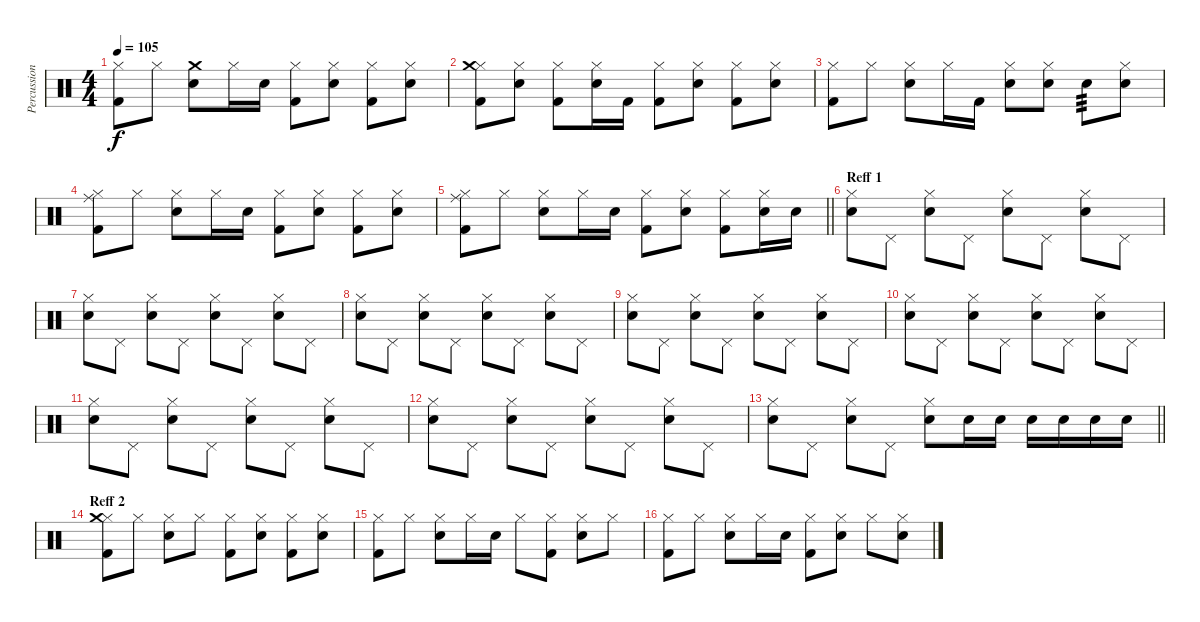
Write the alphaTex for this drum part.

\track ("Percussion" "Percussion") {instrument percussion}
\staff {score}
\articulation defaults
\ts (4 4)
\tempo 105
\clef neutral
\ks c
("Hi-Hat (closed)" "Kick (hit) 2").8{dy f} "Hi-Hat (closed)".8 ("Electric Snare (hit)" "Crash medium (hit)").8 "Hi-Hat (closed)".16 "Electric Snare (hit)".16 ("Hi-Hat (closed)" "Kick (hit) 2").8 ("Hi-Hat (closed)" "Electric Snare (hit)").8 ("Hi-Hat (closed)" "Kick (hit) 2").8 ("Hi-Hat (closed)" "Electric Snare (hit)").8 |
("Hi-Hat (closed)" "Crash medium (hit)" "Kick (hit) 2").8 ("Hi-Hat (closed)" "Electric Snare (hit)").8 ("Hi-Hat (closed)" "Kick (hit) 2").8 ("Electric Snare (hit)" "Hi-Hat (closed)").16 "Kick (hit) 2".16 ("Hi-Hat (closed)" "Kick (hit) 2").8 ("Hi-Hat (closed)" "Electric Snare (hit)").8 ("Hi-Hat (closed)" "Kick (hit) 2").8 ("Hi-Hat (closed)" "Electric Snare (hit)").8 |
("Hi-Hat (closed)" "Kick (hit) 2").8 "Hi-Hat (closed)".8 ("Hi-Hat (closed)" "Electric Snare (hit)").8 "Hi-Hat (closed)".16 "Kick (hit) 2".16 ("Hi-Hat (closed)" "Electric Snare (hit)").8 ("Hi-Hat (closed)" "Electric Snare (hit)").8 "Electric Snare (hit)".8{tp 3} ("Hi-Hat (closed)" "Electric Snare (hit)").8 |
("Hi-Hat (closed)" "Ride (middle)" "Kick (hit) 2").8 "Hi-Hat (closed)".8 ("Hi-Hat (closed)" "Electric Snare (hit)").8 "Hi-Hat (closed)".16 "Electric Snare (hit)".16 ("Hi-Hat (closed)" "Kick (hit) 2").8 ("Hi-Hat (closed)" "Electric Snare (hit)").8 ("Hi-Hat (closed)" "Kick (hit) 2").8 ("Hi-Hat (closed)" "Electric Snare (hit)").8 |
\barLineRight lightlight
("Hi-Hat (closed)" "Ride (middle)" "Kick (hit) 2").8 "Hi-Hat (closed)".8 ("Hi-Hat (closed)" "Electric Snare (hit)").8 "Hi-Hat (closed)".16 "Electric Snare (hit)".16 ("Hi-Hat (closed)" "Kick (hit) 2").8 ("Hi-Hat (closed)" "Electric Snare (hit)").8 ("Hi-Hat (closed)" "Kick (hit) 2").8 ("Hi-Hat (closed)" "Electric Snare (hit)").16 "Electric Snare (hit)".16 |
\section ("" "Reff 1")
("Hi-Hat (closed)" "Electric Snare (hit)").8 "Pedal Hi-Hat (hit)".8 ("Hi-Hat (closed)" "Electric Snare (hit)").8 "Pedal Hi-Hat (hit)".8 ("Hi-Hat (closed)" "Electric Snare (hit)").8 "Pedal Hi-Hat (hit)".8 ("Hi-Hat (closed)" "Electric Snare (hit)").8 "Pedal Hi-Hat (hit)".8 |
("Hi-Hat (closed)" "Electric Snare (hit)").8 "Pedal Hi-Hat (hit)".8 ("Hi-Hat (closed)" "Electric Snare (hit)").8 "Pedal Hi-Hat (hit)".8 ("Hi-Hat (closed)" "Electric Snare (hit)").8 "Pedal Hi-Hat (hit)".8 ("Hi-Hat (closed)" "Electric Snare (hit)").8 "Pedal Hi-Hat (hit)".8 |
("Hi-Hat (closed)" "Electric Snare (hit)").8 "Pedal Hi-Hat (hit)".8 ("Hi-Hat (closed)" "Electric Snare (hit)").8 "Pedal Hi-Hat (hit)".8 ("Hi-Hat (closed)" "Electric Snare (hit)").8 "Pedal Hi-Hat (hit)".8 ("Hi-Hat (closed)" "Electric Snare (hit)").8 "Pedal Hi-Hat (hit)".8 |
("Hi-Hat (closed)" "Electric Snare (hit)").8 "Pedal Hi-Hat (hit)".8 ("Hi-Hat (closed)" "Electric Snare (hit)").8 "Pedal Hi-Hat (hit)".8 ("Hi-Hat (closed)" "Electric Snare (hit)").8 "Pedal Hi-Hat (hit)".8 ("Hi-Hat (closed)" "Electric Snare (hit)").8 "Pedal Hi-Hat (hit)".8 |
("Hi-Hat (closed)" "Electric Snare (hit)").8 "Pedal Hi-Hat (hit)".8 ("Hi-Hat (closed)" "Electric Snare (hit)").8 "Pedal Hi-Hat (hit)".8 ("Hi-Hat (closed)" "Electric Snare (hit)").8 "Pedal Hi-Hat (hit)".8 ("Hi-Hat (closed)" "Electric Snare (hit)").8 "Pedal Hi-Hat (hit)".8 |
("Hi-Hat (closed)" "Electric Snare (hit)").8 "Pedal Hi-Hat (hit)".8 ("Hi-Hat (closed)" "Electric Snare (hit)").8 "Pedal Hi-Hat (hit)".8 ("Hi-Hat (closed)" "Electric Snare (hit)").8 "Pedal Hi-Hat (hit)".8 ("Hi-Hat (closed)" "Electric Snare (hit)").8 "Pedal Hi-Hat (hit)".8 |
("Hi-Hat (closed)" "Electric Snare (hit)").8 "Pedal Hi-Hat (hit)".8 ("Hi-Hat (closed)" "Electric Snare (hit)").8 "Pedal Hi-Hat (hit)".8 ("Hi-Hat (closed)" "Electric Snare (hit)").8 "Pedal Hi-Hat (hit)".8 ("Hi-Hat (closed)" "Electric Snare (hit)").8 "Pedal Hi-Hat (hit)".8 |
\barLineRight lightlight
("Hi-Hat (closed)" "Electric Snare (hit)").8 "Pedal Hi-Hat (hit)".8 ("Hi-Hat (closed)" "Electric Snare (hit)").8 "Pedal Hi-Hat (hit)".8 ("Hi-Hat (closed)" "Electric Snare (hit)").8 "Electric Snare (hit)".16 "Electric Snare (hit)".16 "Electric Snare (hit)".16 "Electric Snare (hit)".16 "Electric Snare (hit)".16 "Electric Snare (hit)".16 |
\section ("" "Reff 2")
("Hi-Hat (closed)" "Crash medium (hit)" "Kick (hit) 2").8 "Hi-Hat (closed)".8 ("Hi-Hat (closed)" "Electric Snare (hit)").8 "Hi-Hat (closed)".8 ("Hi-Hat (closed)" "Kick (hit) 2").8 ("Hi-Hat (closed)" "Electric Snare (hit)").8 ("Hi-Hat (closed)" "Kick (hit) 2").8 ("Hi-Hat (closed)" "Electric Snare (hit)").8 |
("Hi-Hat (closed)" "Kick (hit) 2").8 "Hi-Hat (closed)".8 ("Hi-Hat (closed)" "Electric Snare (hit)").8 "Hi-Hat (closed)".16 "Electric Snare (hit)".16 "Hi-Hat (closed)".8 ("Hi-Hat (closed)" "Kick (hit) 2").8 ("Hi-Hat (closed)" "Electric Snare (hit)").8 "Hi-Hat (closed)".8 |
("Hi-Hat (closed)" "Kick (hit) 2").8 "Hi-Hat (closed)".8 ("Hi-Hat (closed)" "Electric Snare (hit)").8 "Hi-Hat (closed)".16 "Electric Snare (hit)".16 ("Hi-Hat (closed)" "Kick (hit) 2").8 ("Hi-Hat (closed)" "Electric Snare (hit)").8 "Hi-Hat (closed)".8 ("Hi-Hat (closed)" "Electric Snare (hit)").8
